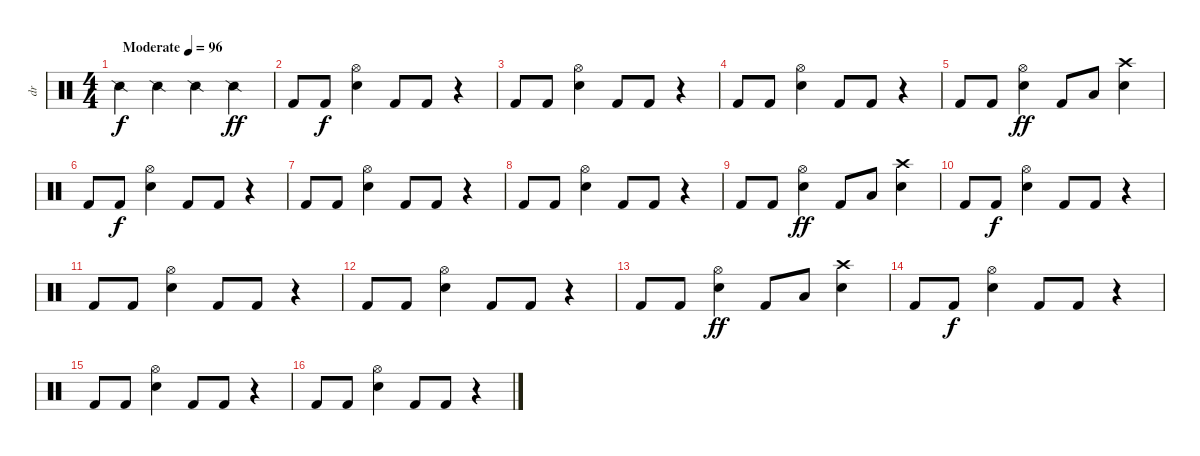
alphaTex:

\track ("dr" "dr") {instrument percussion}
\staff {score}
\articulation defaults
\ts (4 4)
\tempo (96 "Moderate")
\clef neutral
\ks c "Snare (side stick) 2".4{dy f} "Snare (side stick) 2".4 "Snare (side stick) 2".4 "Snare (side stick) 2".4{dy ff}
|
"Kick (hit) 2".8 "Kick (hit) 2".8{dy f} ("Hi-Hat (open)" "Electric Snare (hit)").4 "Kick (hit) 2".8 "Kick (hit) 2".8 r.4 |
"Kick (hit) 2".8 "Kick (hit) 2".8 ("Hi-Hat (open)" "Electric Snare (hit)").4 "Kick (hit) 2".8 "Kick (hit) 2".8 r.4 |
"Kick (hit) 2".8 "Kick (hit) 2".8 ("Hi-Hat (open)" "Electric Snare (hit)").4 "Kick (hit) 2".8 "Kick (hit) 2".8 r.4 |
"Kick (hit) 2".8 "Kick (hit) 2".8 ("Hi-Hat (open)" "Electric Snare (hit)").4{dy ff} "Kick (hit) 2".8 "Low Floor Tom (hit)".8 ("Crash high (hit)" "Electric Snare (hit)").4 |
"Kick (hit) 2".8 "Kick (hit) 2".8{dy f} ("Hi-Hat (open)" "Electric Snare (hit)").4 "Kick (hit) 2".8 "Kick (hit) 2".8 r.4 |
"Kick (hit) 2".8 "Kick (hit) 2".8 ("Hi-Hat (open)" "Electric Snare (hit)").4 "Kick (hit) 2".8 "Kick (hit) 2".8 r.4 |
"Kick (hit) 2".8 "Kick (hit) 2".8 ("Hi-Hat (open)" "Electric Snare (hit)").4 "Kick (hit) 2".8 "Kick (hit) 2".8 r.4 |
"Kick (hit) 2".8 "Kick (hit) 2".8 ("Hi-Hat (open)" "Electric Snare (hit)").4{dy ff} "Kick (hit) 2".8 "Low Floor Tom (hit)".8 ("Crash high (hit)" "Electric Snare (hit)").4 |
"Kick (hit) 2".8 "Kick (hit) 2".8{dy f} ("Hi-Hat (open)" "Electric Snare (hit)").4 "Kick (hit) 2".8 "Kick (hit) 2".8 r.4 |
"Kick (hit) 2".8 "Kick (hit) 2".8 ("Hi-Hat (open)" "Electric Snare (hit)").4 "Kick (hit) 2".8 "Kick (hit) 2".8 r.4 |
"Kick (hit) 2".8 "Kick (hit) 2".8 ("Hi-Hat (open)" "Electric Snare (hit)").4 "Kick (hit) 2".8 "Kick (hit) 2".8 r.4 |
"Kick (hit) 2".8 "Kick (hit) 2".8 ("Hi-Hat (open)" "Electric Snare (hit)").4{dy ff} "Kick (hit) 2".8 "Low Floor Tom (hit)".8 ("Crash high (hit)" "Electric Snare (hit)").4 |
"Kick (hit) 2".8 "Kick (hit) 2".8{dy f} ("Hi-Hat (open)" "Electric Snare (hit)").4 "Kick (hit) 2".8 "Kick (hit) 2".8 r.4 |
"Kick (hit) 2".8 "Kick (hit) 2".8 ("Hi-Hat (open)" "Electric Snare (hit)").4 "Kick (hit) 2".8 "Kick (hit) 2".8 r.4 |
"Kick (hit) 2".8 "Kick (hit) 2".8 ("Hi-Hat (open)" "Electric Snare (hit)").4 "Kick (hit) 2".8 "Kick (hit) 2".8 r.4
